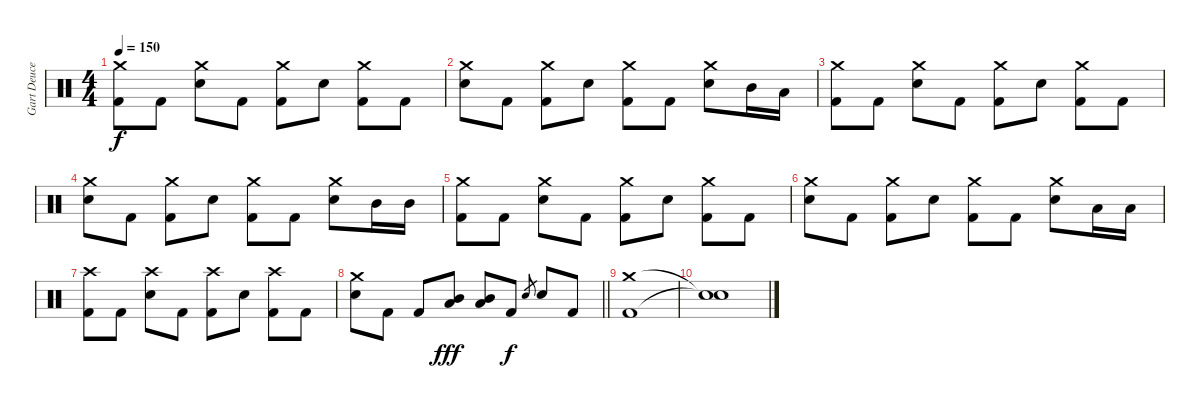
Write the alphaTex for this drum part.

\track ("Gart Deuce" "Gart Deuce") {instrument percussion}
\staff {score}
\articulation defaults
\ts (4 4)
\tempo 150
\clef neutral
\ks c
("Crash medium (hit)" "Kick (hit) 2").8{dy f} "Kick (hit) 2".8 ("Crash medium (hit)" "Snare (hit) 2").8 "Kick (hit) 2".8 ("Crash medium (hit)" "Kick (hit) 2").8 "Snare (hit) 2".8 ("Crash medium (hit)" "Kick (hit) 2").8 "Kick (hit) 2".8 |
("Crash medium (hit)" "Snare (hit) 2").8 "Kick (hit) 2".8 ("Crash medium (hit)" "Kick (hit) 2").8 "Snare (hit) 2".8 ("Crash medium (hit)" "Kick (hit) 2").8 "Kick (hit) 2".8 ("Crash medium (hit)" "Snare (hit) 2").8 "Mid Tom (hit)".16 "Low Tom (hit)".16 |
("Crash medium (hit)" "Kick (hit) 2").8 "Kick (hit) 2".8 ("Crash medium (hit)" "Snare (hit) 2").8 "Kick (hit) 2".8 ("Crash medium (hit)" "Kick (hit) 2").8 "Snare (hit) 2".8 ("Crash medium (hit)" "Kick (hit) 2").8 "Kick (hit) 2".8 |
("Crash medium (hit)" "Snare (hit) 2").8 "Kick (hit) 2".8 ("Crash medium (hit)" "Kick (hit) 2").8 "Snare (hit) 2".8 ("Crash medium (hit)" "Kick (hit) 2").8 "Kick (hit) 2".8 ("Crash medium (hit)" "Snare (hit) 2").8 "Mid Tom (hit)".16 "Mid Tom (hit)".16 |
("Crash medium (hit)" "Kick (hit) 2").8 "Kick (hit) 2".8 ("Crash medium (hit)" "Snare (hit) 2").8 "Kick (hit) 2".8 ("Crash medium (hit)" "Kick (hit) 2").8 "Snare (hit) 2".8 ("Crash medium (hit)" "Kick (hit) 2").8 "Kick (hit) 2".8 |
("Crash medium (hit)" "Snare (hit) 2").8 "Kick (hit) 2".8 ("Crash medium (hit)" "Kick (hit) 2").8 "Snare (hit) 2".8 ("Crash medium (hit)" "Kick (hit) 2").8 "Kick (hit) 2".8 ("Crash medium (hit)" "Snare (hit) 2").8 "Low Tom (hit)".16 "Low Tom (hit)".16 |
("Crash high (hit)" "Kick (hit) 2").8 "Kick (hit) 2".8 ("Crash high (hit)" "Snare (hit) 2").8 "Kick (hit) 2".8 ("Crash high (hit)" "Kick (hit) 2").8 "Snare (hit) 2".8 ("Crash high (hit)" "Kick (hit) 2").8 "Kick (hit) 2".8 |
\barLineRight lightlight
("Crash medium (hit)" "Snare (hit) 2").8 "Kick (hit) 2".8 "Kick (hit) 2".8 ("Mid Tom (hit)" "Low Tom (hit)").8{dy fff} ("Mid Tom (hit)" "Low Tom (hit)").8 "Kick (hit) 2".8{dy f} "Snare (hit) 2".8{gr} "Snare (hit) 2".8 "Kick (hit) 2".8 |
("Crash medium (hit)" "Kick (hit) 2").1 |
("Snare (hit)"{t} "Snare (hit)"{t}).1
